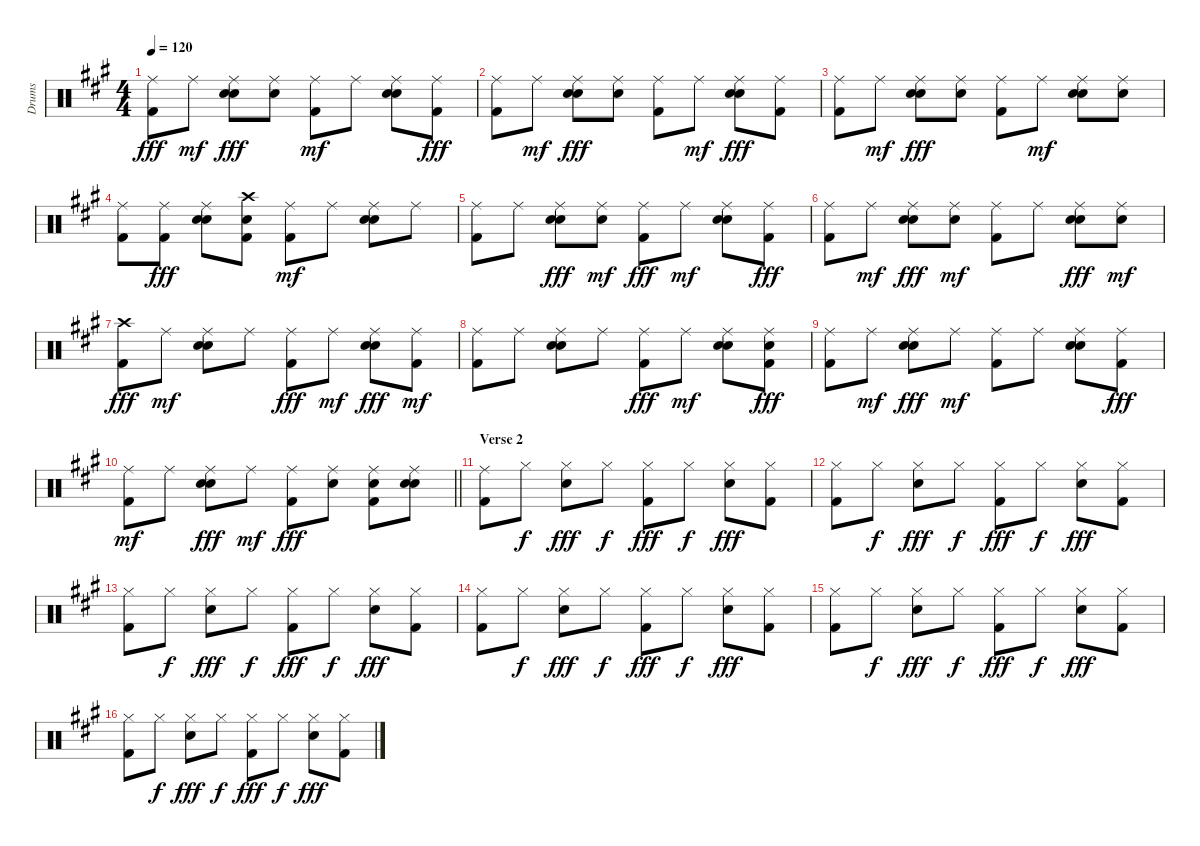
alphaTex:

\track ("Drums" "Drums") {instrument percussion}
\staff {score}
\articulation defaults
\ts (4 4)
\tempo 120
\clef neutral
\ks a
("Ride (middle)" "Kick (hit) 2").8{dy fff} "Ride (middle)".8{dy mf} ("Snare (hit) 2" "Ride (middle)" "Hand Clap (hit)").8{dy fff} ("Ride (middle)" "Hand Clap (hit)").8 ("Kick (hit) 2" "Ride (middle)").8{dy mf} "Ride (middle)".8 ("Hand Clap (hit)" "Snare (hit) 2" "Ride (middle)").8 ("Ride (middle)" "Kick (hit) 2").8{dy fff} |
("Ride (middle)" "Kick (hit) 2").8 "Ride (middle)".8{dy mf} ("Ride (middle)" "Snare (hit) 2" "Hand Clap (hit)").8{dy fff} ("Ride (middle)" "Hand Clap (hit)").8 ("Ride (middle)" "Kick (hit) 2").8 "Ride (middle)".8{dy mf} ("Ride (middle)" "Hand Clap (hit)" "Snare (hit) 2").8{dy fff} ("Ride (middle)" "Kick (hit) 2").8 |
("Ride (middle)" "Kick (hit) 2").8 "Ride (middle)".8{dy mf} ("Hand Clap (hit)" "Ride (middle)" "Snare (hit) 2").8{dy fff} ("Ride (middle)" "Hand Clap (hit)").8 ("Ride (middle)" "Kick (hit) 2").8 "Ride (middle)".8{dy mf} ("Hand Clap (hit)" "Snare (hit) 2" "Ride (middle)").8 ("Snare (hit) 2" "Ride (middle)").8 |
("Kick (hit) 2" "Ride (middle)").8 ("Ride (middle)" "Kick (hit) 2").8{dy fff} ("Ride (middle)" "Hand Clap (hit)" "Snare (hit) 2").8 ("Crash high (hit)" "Hand Clap (hit)" "Kick (hit) 2").8 ("Kick (hit) 2" "Ride (middle)").8{dy mf} "Ride (middle)".8 ("Hand Clap (hit)" "Snare (hit) 2" "Ride (middle)").8 "Ride (middle)".8 |
("Kick (hit) 2" "Ride (middle)").8 "Ride (middle)".8 ("Ride (middle)" "Snare (hit) 2" "Hand Clap (hit)").8{dy fff} ("Hand Clap (hit)" "Ride (middle)").8{dy mf} ("Ride (middle)" "Kick (hit) 2").8{dy fff} "Ride (middle)".8{dy mf} ("Hand Clap (hit)" "Snare (hit) 2" "Ride (middle)").8 ("Ride (middle)" "Kick (hit) 2").8{dy fff} |
("Ride (middle)" "Kick (hit) 2").8 "Ride (middle)".8{dy mf} ("Snare (hit) 2" "Ride (middle)" "Hand Clap (hit)").8{dy fff} ("Hand Clap (hit)" "Ride (middle)").8{dy mf} ("Kick (hit) 2" "Ride (middle)").8 "Ride (middle)".8 ("Ride (middle)" "Snare (hit) 2" "Hand Clap (hit)").8{dy fff} ("Snare (hit) 2" "Ride (middle)").8{dy mf} |
("Crash high (hit)" "Kick (hit) 2").8{dy fff} "Ride (middle)".8{dy mf} ("Hand Clap (hit)" "Snare (hit) 2" "Ride (middle)").8 "Ride (middle)".8 ("Ride (middle)" "Kick (hit) 2").8{dy fff} "Ride (middle)".8{dy mf} ("Snare (hit) 2" "Ride (middle)" "Hand Clap (hit)").8{dy fff} ("Kick (hit) 2" "Ride (middle)").8{dy mf} |
("Kick (hit) 2" "Ride (middle)").8 "Ride (middle)".8 ("Snare (hit) 2" "Hand Clap (hit)" "Ride (middle)").8 "Ride (middle)".8 ("Ride (middle)" "Kick (hit) 2").8{dy fff} "Ride (middle)".8{dy mf} ("Hand Clap (hit)" "Snare (hit) 2" "Ride (middle)").8 ("Hand Clap (hit)" "Ride (middle)" "Kick (hit) 2").8{dy fff} |
("Ride (middle)" "Kick (hit) 2").8 "Ride (middle)".8{dy mf} ("Hand Clap (hit)" "Ride (middle)" "Snare (hit) 2").8{dy fff} "Ride (middle)".8{dy mf} ("Kick (hit) 2" "Ride (middle)").8 "Ride (middle)".8 ("Snare (hit) 2" "Hand Clap (hit)" "Ride (middle)").8 ("Ride (middle)" "Kick (hit) 2").8{dy fff} |
\barLineRight lightlight
("Kick (hit) 2" "Ride (middle)").8{dy mf} "Ride (middle)".8 ("Hand Clap (hit)" "Ride (middle)" "Snare (hit) 2").8{dy fff} "Ride (middle)".8{dy mf} ("Ride (middle)" "Kick (hit) 2").8{dy fff} ("Ride (middle)" "Snare (hit) 2").8 ("Kick (hit) 2" "Ride (middle)" "Hand Clap (hit)").8 ("Hand Clap (hit)" "Ride (middle)" "Snare (hit) 2").8 |
\section ("" "Verse 2")
("Ride (middle)" "Kick (hit) 2").8 "Hi-Hat (closed)".8{dy f} ("Snare (hit) 2" "Hi-Hat (closed)").8{dy fff} "Hi-Hat (closed)".8{dy f} ("Kick (hit) 2" "Hi-Hat (closed)").8{dy fff} "Hi-Hat (closed)".8{dy f} ("Hi-Hat (closed)" "Snare (hit) 2").8{dy fff} ("Kick (hit) 2" "Hi-Hat (closed)").8 |
("Kick (hit) 2" "Hi-Hat (closed)").8 "Hi-Hat (closed)".8{dy f} ("Snare (hit) 2" "Hi-Hat (closed)").8{dy fff} "Hi-Hat (closed)".8{dy f} ("Kick (hit) 2" "Hi-Hat (closed)").8{dy fff} "Hi-Hat (closed)".8{dy f} ("Snare (hit) 2" "Hi-Hat (closed)").8{dy fff} ("Kick (hit) 2" "Hi-Hat (closed)").8 |
("Hi-Hat (closed)" "Kick (hit) 2").8 "Hi-Hat (closed)".8{dy f} ("Snare (hit) 2" "Hi-Hat (closed)").8{dy fff} "Hi-Hat (closed)".8{dy f} ("Kick (hit) 2" "Hi-Hat (closed)").8{dy fff} "Hi-Hat (closed)".8{dy f} ("Snare (hit) 2" "Hi-Hat (closed)").8{dy fff} ("Kick (hit) 2" "Hi-Hat (closed)").8 |
("Hi-Hat (closed)" "Kick (hit) 2").8 "Hi-Hat (closed)".8{dy f} ("Hi-Hat (closed)" "Snare (hit) 2").8{dy fff} "Hi-Hat (closed)".8{dy f} ("Kick (hit) 2" "Hi-Hat (closed)").8{dy fff} "Hi-Hat (closed)".8{dy f} ("Hi-Hat (closed)" "Snare (hit) 2").8{dy fff} ("Kick (hit) 2" "Hi-Hat (closed)").8 |
("Kick (hit) 2" "Hi-Hat (closed)").8 "Hi-Hat (closed)".8{dy f} ("Hi-Hat (closed)" "Snare (hit) 2").8{dy fff} "Hi-Hat (closed)".8{dy f} ("Kick (hit) 2" "Hi-Hat (closed)").8{dy fff} "Hi-Hat (closed)".8{dy f} ("Hi-Hat (closed)" "Snare (hit) 2").8{dy fff} ("Hi-Hat (closed)" "Kick (hit) 2").8 |
("Kick (hit) 2" "Hi-Hat (closed)").8 "Hi-Hat (closed)".8{dy f} ("Hi-Hat (closed)" "Snare (hit) 2").8{dy fff} "Hi-Hat (closed)".8{dy f} ("Kick (hit) 2" "Hi-Hat (closed)").8{dy fff} "Hi-Hat (closed)".8{dy f} ("Hi-Hat (closed)" "Snare (hit) 2").8{dy fff} ("Kick (hit) 2" "Hi-Hat (closed)").8
